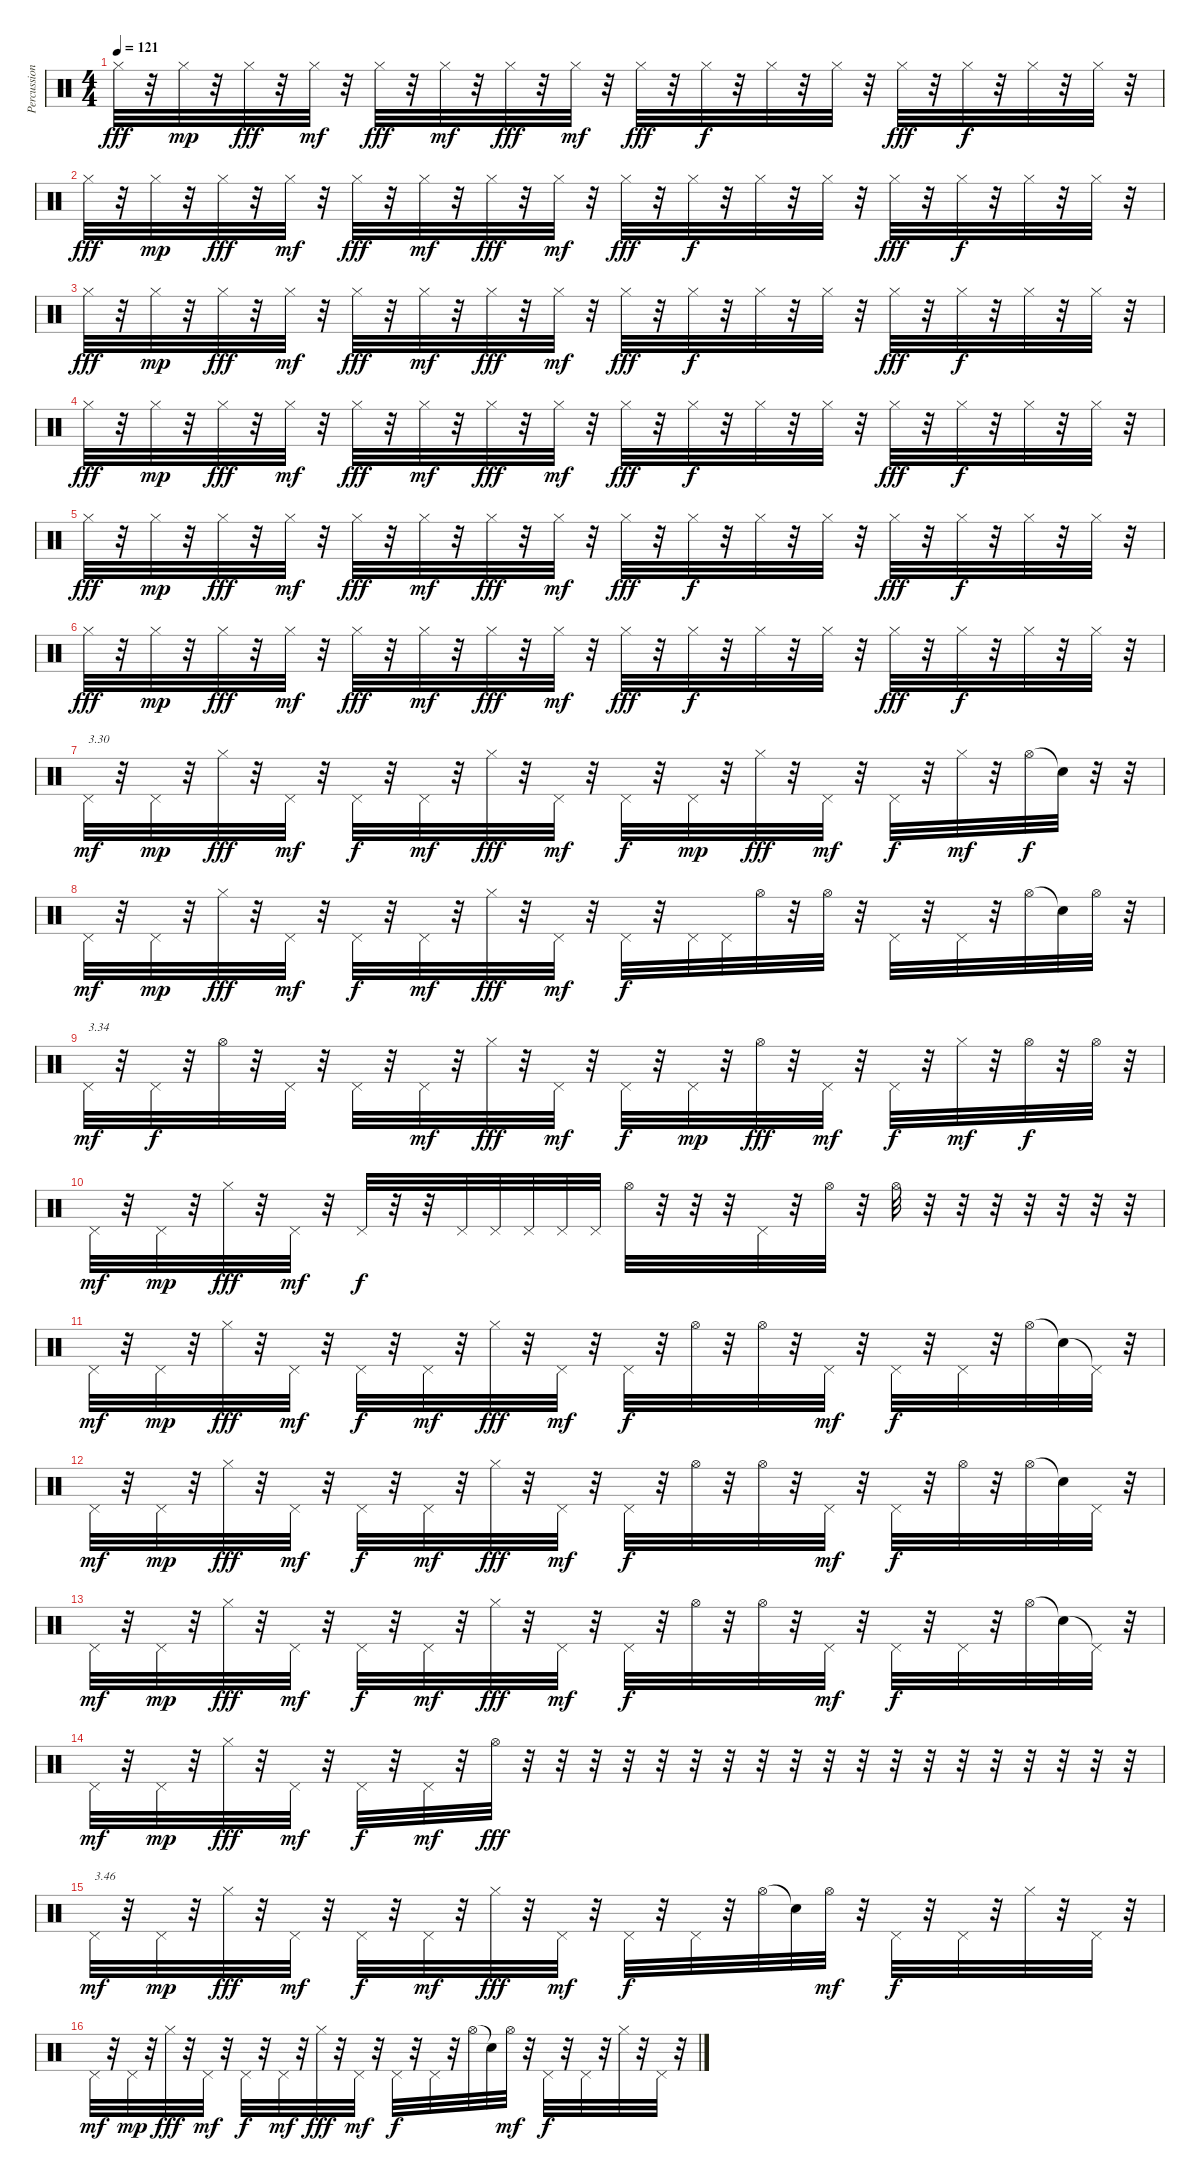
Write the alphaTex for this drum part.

\track ("Percussions" "Percussion") {instrument percussion}
\staff {score}
\articulation defaults
\ts (4 4)
\tempo 121
\clef neutral
\ks c "Hi-Hat (closed)".32{dy fff}
r.32 "Hi-Hat (closed)".32{dy mp} r.32 "Hi-Hat (closed)".32{dy fff} r.32 "Hi-Hat (closed)".32{dy mf} r.32 "Hi-Hat (closed)".32{dy fff} r.32 "Hi-Hat (closed)".32{dy mf} r.32 "Hi-Hat (closed)".32{dy fff} r.32 "Hi-Hat (closed)".32{dy mf} r.32 "Hi-Hat (closed)".32{dy fff} r.32 "Hi-Hat (closed)".32{dy f} r.32 "Hi-Hat (closed)".32 r.32 "Hi-Hat (closed)".32 r.32 "Hi-Hat (closed)".32{dy fff} r.32 "Hi-Hat (closed)".32{dy f} r.32 "Hi-Hat (closed)".32 r.32 "Hi-Hat (closed)".32 r.32 |
"Hi-Hat (closed)".32{dy fff} r.32 "Hi-Hat (closed)".32{dy mp} r.32 "Hi-Hat (closed)".32{dy fff} r.32 "Hi-Hat (closed)".32{dy mf} r.32 "Hi-Hat (closed)".32{dy fff} r.32 "Hi-Hat (closed)".32{dy mf} r.32 "Hi-Hat (closed)".32{dy fff} r.32 "Hi-Hat (closed)".32{dy mf} r.32 "Hi-Hat (closed)".32{dy fff} r.32 "Hi-Hat (closed)".32{dy f} r.32 "Hi-Hat (closed)".32 r.32 "Hi-Hat (closed)".32 r.32 "Hi-Hat (closed)".32{dy fff} r.32 "Hi-Hat (closed)".32{dy f} r.32 "Hi-Hat (closed)".32 r.32 "Hi-Hat (closed)".32 r.32 |
"Hi-Hat (closed)".32{dy fff} r.32 "Hi-Hat (closed)".32{dy mp} r.32 "Hi-Hat (closed)".32{dy fff} r.32 "Hi-Hat (closed)".32{dy mf} r.32 "Hi-Hat (closed)".32{dy fff} r.32 "Hi-Hat (closed)".32{dy mf} r.32 "Hi-Hat (closed)".32{dy fff} r.32 "Hi-Hat (closed)".32{dy mf} r.32 "Hi-Hat (closed)".32{dy fff} r.32 "Hi-Hat (closed)".32{dy f} r.32 "Hi-Hat (closed)".32 r.32 "Hi-Hat (closed)".32 r.32 "Hi-Hat (closed)".32{dy fff} r.32 "Hi-Hat (closed)".32{dy f} r.32 "Hi-Hat (closed)".32 r.32 "Hi-Hat (closed)".32 r.32 |
"Hi-Hat (closed)".32{dy fff} r.32 "Hi-Hat (closed)".32{dy mp} r.32 "Hi-Hat (closed)".32{dy fff} r.32 "Hi-Hat (closed)".32{dy mf} r.32 "Hi-Hat (closed)".32{dy fff} r.32 "Hi-Hat (closed)".32{dy mf} r.32 "Hi-Hat (closed)".32{dy fff} r.32 "Hi-Hat (closed)".32{dy mf} r.32 "Hi-Hat (closed)".32{dy fff} r.32 "Hi-Hat (closed)".32{dy f} r.32 "Hi-Hat (closed)".32 r.32 "Hi-Hat (closed)".32 r.32 "Hi-Hat (closed)".32{dy fff} r.32 "Hi-Hat (closed)".32{dy f} r.32 "Hi-Hat (closed)".32 r.32 "Hi-Hat (closed)".32 r.32 |
"Hi-Hat (closed)".32{dy fff} r.32 "Hi-Hat (closed)".32{dy mp} r.32 "Hi-Hat (closed)".32{dy fff} r.32 "Hi-Hat (closed)".32{dy mf} r.32 "Hi-Hat (closed)".32{dy fff} r.32 "Hi-Hat (closed)".32{dy mf} r.32 "Hi-Hat (closed)".32{dy fff} r.32 "Hi-Hat (closed)".32{dy mf} r.32 "Hi-Hat (closed)".32{dy fff} r.32 "Hi-Hat (closed)".32{dy f} r.32 "Hi-Hat (closed)".32 r.32 "Hi-Hat (closed)".32 r.32 "Hi-Hat (closed)".32{dy fff} r.32 "Hi-Hat (closed)".32{dy f} r.32 "Hi-Hat (closed)".32 r.32 "Hi-Hat (closed)".32 r.32 |
"Hi-Hat (closed)".32{dy fff} r.32 "Hi-Hat (closed)".32{dy mp} r.32 "Hi-Hat (closed)".32{dy fff} r.32 "Hi-Hat (closed)".32{dy mf} r.32 "Hi-Hat (closed)".32{dy fff} r.32 "Hi-Hat (closed)".32{dy mf} r.32 "Hi-Hat (closed)".32{dy fff} r.32 "Hi-Hat (closed)".32{dy mf} r.32 "Hi-Hat (closed)".32{dy fff} r.32 "Hi-Hat (closed)".32{dy f} r.32 "Hi-Hat (closed)".32 r.32 "Hi-Hat (closed)".32 r.32 "Hi-Hat (closed)".32{dy fff} r.32 "Hi-Hat (closed)".32{dy f} r.32 "Hi-Hat (closed)".32 r.32 "Hi-Hat (closed)".32 r.32 |
"Pedal Hi-Hat (hit)".32{txt "3.30" dy mf} r.32 "Pedal Hi-Hat (hit)".32{dy mp} r.32 "Hi-Hat (closed)".32{dy fff} r.32 "Pedal Hi-Hat (hit)".32{dy mf} r.32 "Pedal Hi-Hat (hit)".32{dy f} r.32 "Pedal Hi-Hat (hit)".32{dy mf} r.32 "Hi-Hat (closed)".32{dy fff} r.32 "Pedal Hi-Hat (hit)".32{dy mf} r.32 "Pedal Hi-Hat (hit)".32{dy f} r.32 "Pedal Hi-Hat (hit)".32{dy mp} r.32 "Hi-Hat (closed)".32{dy fff} r.32 "Pedal Hi-Hat (hit)".32{dy mf} r.32 "Pedal Hi-Hat (hit)".32{dy f} r.32 "Hi-Hat (closed)".32{dy mf} r.32 "Hi-Hat (open)".32{dy f} "Snare (hit)"{t}.32 r.32 r.32 |
"Pedal Hi-Hat (hit)".32{dy mf} r.32 "Pedal Hi-Hat (hit)".32{dy mp} r.32 "Hi-Hat (closed)".32{dy fff} r.32 "Pedal Hi-Hat (hit)".32{dy mf} r.32 "Pedal Hi-Hat (hit)".32{dy f} r.32 "Pedal Hi-Hat (hit)".32{dy mf} r.32 "Hi-Hat (closed)".32{dy fff} r.32 "Pedal Hi-Hat (hit)".32{dy mf} r.32 "Pedal Hi-Hat (hit)".32{dy f} r.32 "Pedal Hi-Hat (hit)".32 "Pedal Hi-Hat (hit)".32 "Hi-Hat (open)".32 r.32 "Hi-Hat (open)".32 r.32 "Pedal Hi-Hat (hit)".32 r.32 "Pedal Hi-Hat (hit)".32 r.32 "Hi-Hat (open)".32 "Snare (hit)"{t}.32 "Hi-Hat (open)".32 r.32 |
"Pedal Hi-Hat (hit)".32{txt "3.34" dy mf} r.32 "Pedal Hi-Hat (hit)".32{dy f} r.32 "Hi-Hat (open)".32 r.32 "Pedal Hi-Hat (hit)".32 r.32 "Pedal Hi-Hat (hit)".32 r.32 "Pedal Hi-Hat (hit)".32{dy mf} r.32 "Hi-Hat (closed)".32{dy fff} r.32 "Pedal Hi-Hat (hit)".32{dy mf} r.32 "Pedal Hi-Hat (hit)".32{dy f} r.32 "Pedal Hi-Hat (hit)".32{dy mp} r.32 "Hi-Hat (open)".32{dy fff} r.32 "Pedal Hi-Hat (hit)".32{dy mf} r.32 "Pedal Hi-Hat (hit)".32{dy f} r.32 "Hi-Hat (closed)".32{dy mf} r.32 "Hi-Hat (open)".32{dy f} r.32 "Hi-Hat (open)".32 r.32 |
"Pedal Hi-Hat (hit)".32{dy mf} r.32 "Pedal Hi-Hat (hit)".32{dy mp} r.32 "Hi-Hat (closed)".32{dy fff} r.32 "Pedal Hi-Hat (hit)".32{dy mf} r.32 "Pedal Hi-Hat (hit)".32{dy f} r.32 r.32 "Pedal Hi-Hat (hit)".32 "Pedal Hi-Hat (hit)".32 "Pedal Hi-Hat (hit)".32 "Pedal Hi-Hat (hit)".32 "Pedal Hi-Hat (hit)".32 "Hi-Hat (open)".32 r.32 r.32 r.32 "Pedal Hi-Hat (hit)".32 r.32 "Hi-Hat (open)".32 r.32 "Hi-Hat (open)".32 r.32 r.32 r.32 r.32 r.32 r.32 r.32 |
"Pedal Hi-Hat (hit)".32{dy mf} r.32 "Pedal Hi-Hat (hit)".32{dy mp} r.32 "Hi-Hat (closed)".32{dy fff} r.32 "Pedal Hi-Hat (hit)".32{dy mf} r.32 "Pedal Hi-Hat (hit)".32{dy f} r.32 "Pedal Hi-Hat (hit)".32{dy mf} r.32 "Hi-Hat (closed)".32{dy fff} r.32 "Pedal Hi-Hat (hit)".32{dy mf} r.32 "Pedal Hi-Hat (hit)".32{dy f} r.32 "Hi-Hat (open)".32 r.32 "Hi-Hat (open)".32 r.32 "Pedal Hi-Hat (hit)".32{dy mf} r.32 "Pedal Hi-Hat (hit)".32{dy f} r.32 "Pedal Hi-Hat (hit)".32 r.32 "Hi-Hat (open)".32 "Snare (hit)"{t}.32 "Pedal Hi-Hat (hit)"{t}.32 r.32 |
"Pedal Hi-Hat (hit)".32{dy mf} r.32 "Pedal Hi-Hat (hit)".32{dy mp} r.32 "Hi-Hat (closed)".32{dy fff} r.32 "Pedal Hi-Hat (hit)".32{dy mf} r.32 "Pedal Hi-Hat (hit)".32{dy f} r.32 "Pedal Hi-Hat (hit)".32{dy mf} r.32 "Hi-Hat (closed)".32{dy fff} r.32 "Pedal Hi-Hat (hit)".32{dy mf} r.32 "Pedal Hi-Hat (hit)".32{dy f} r.32 "Hi-Hat (open)".32 r.32 "Hi-Hat (open)".32 r.32 "Pedal Hi-Hat (hit)".32{dy mf} r.32 "Pedal Hi-Hat (hit)".32{dy f} r.32 "Hi-Hat (open)".32 r.32 "Hi-Hat (open)".32 "Snare (hit)"{t}.32 "Pedal Hi-Hat (hit)".32 r.32 |
"Pedal Hi-Hat (hit)".32{dy mf} r.32 "Pedal Hi-Hat (hit)".32{dy mp} r.32 "Hi-Hat (closed)".32{dy fff} r.32 "Pedal Hi-Hat (hit)".32{dy mf} r.32 "Pedal Hi-Hat (hit)".32{dy f} r.32 "Pedal Hi-Hat (hit)".32{dy mf} r.32 "Hi-Hat (closed)".32{dy fff} r.32 "Pedal Hi-Hat (hit)".32{dy mf} r.32 "Pedal Hi-Hat (hit)".32{dy f} r.32 "Hi-Hat (open)".32 r.32 "Hi-Hat (open)".32 r.32 "Pedal Hi-Hat (hit)".32{dy mf} r.32 "Pedal Hi-Hat (hit)".32{dy f} r.32 "Pedal Hi-Hat (hit)".32 r.32 "Hi-Hat (open)".32 "Snare (hit)"{t}.32 "Pedal Hi-Hat (hit)"{t}.32 r.32 |
"Pedal Hi-Hat (hit)".32{dy mf} r.32 "Pedal Hi-Hat (hit)".32{dy mp} r.32 "Hi-Hat (closed)".32{dy fff} r.32 "Pedal Hi-Hat (hit)".32{dy mf} r.32 "Pedal Hi-Hat (hit)".32{dy f} r.32 "Pedal Hi-Hat (hit)".32{dy mf} r.32 "Hi-Hat (open)".32{dy fff} r.32 r.32 r.32 r.32 r.32 r.32 r.32 r.32 r.32 r.32 r.32 r.32 r.32 r.32 r.32 r.32 r.32 r.32 r.32 |
"Pedal Hi-Hat (hit)".32{txt "3.46" dy mf} r.32 "Pedal Hi-Hat (hit)".32{dy mp} r.32 "Hi-Hat (closed)".32{dy fff} r.32 "Pedal Hi-Hat (hit)".32{dy mf} r.32 "Pedal Hi-Hat (hit)".32{dy f} r.32 "Pedal Hi-Hat (hit)".32{dy mf} r.32 "Hi-Hat (closed)".32{dy fff} r.32 "Pedal Hi-Hat (hit)".32{dy mf} r.32 "Pedal Hi-Hat (hit)".32{dy f} r.32 "Pedal Hi-Hat (hit)".32 r.32 "Hi-Hat (open)".32 "Snare (hit)"{t}.32 "Hi-Hat (open)".32{dy mf} r.32 "Pedal Hi-Hat (hit)".32{dy f} r.32 "Pedal Hi-Hat (hit)".32 r.32 "Hi-Hat (closed)".32 r.32 "Pedal Hi-Hat (hit)".32 r.32 |
"Pedal Hi-Hat (hit)".32{dy mf} r.32 "Pedal Hi-Hat (hit)".32{dy mp} r.32 "Hi-Hat (closed)".32{dy fff} r.32 "Pedal Hi-Hat (hit)".32{dy mf} r.32 "Pedal Hi-Hat (hit)".32{dy f} r.32 "Pedal Hi-Hat (hit)".32{dy mf} r.32 "Hi-Hat (closed)".32{dy fff} r.32 "Pedal Hi-Hat (hit)".32{dy mf} r.32 "Pedal Hi-Hat (hit)".32{dy f} r.32 "Pedal Hi-Hat (hit)".32 r.32 "Hi-Hat (open)".32 "Snare (hit)"{t}.32 "Hi-Hat (open)".32{dy mf} r.32 "Pedal Hi-Hat (hit)".32{dy f} r.32 "Pedal Hi-Hat (hit)".32 r.32 "Hi-Hat (closed)".32 r.32 "Pedal Hi-Hat (hit)".32 r.32
